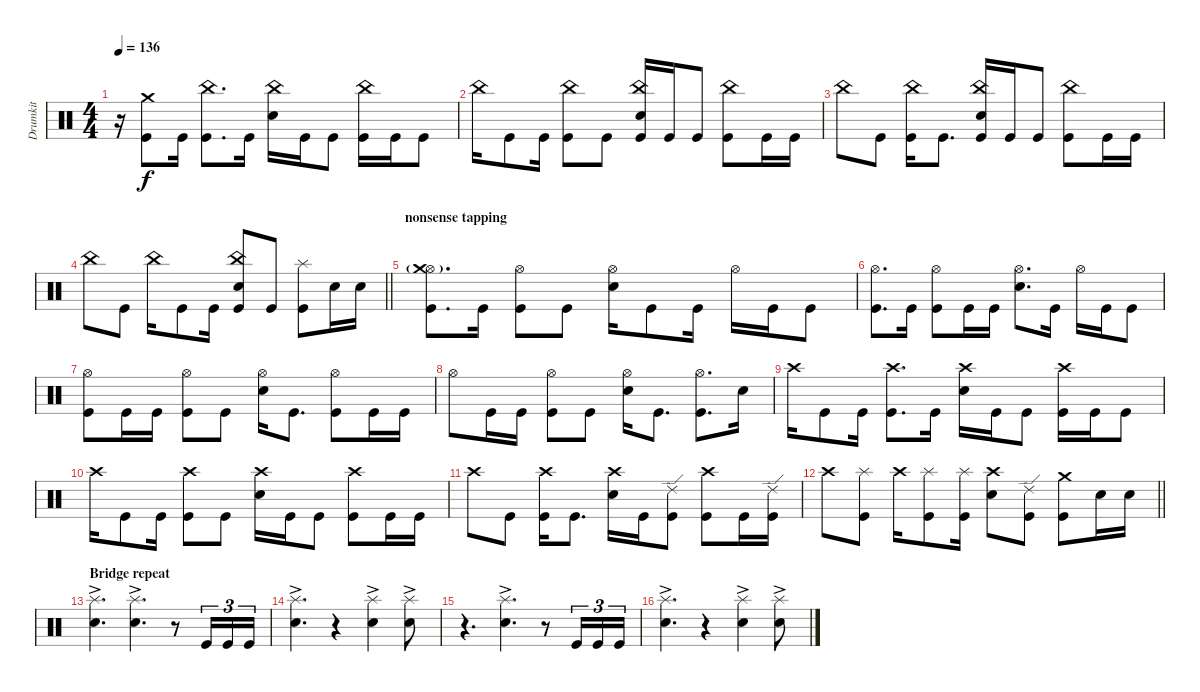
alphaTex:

\track ("Drumkit" "Drumkit") {instrument percussion}
\staff {score}
\articulation defaults
\ts (4 4)
\tempo 136
\clef neutral
\ks c
r.16{dy f} ("Kick (hit)" "Crash medium (hit)").8 "Kick (hit)".16 ("China (hit)" "Kick (hit)").8{d} "Kick (hit)".16 ("China (hit)" "Snare (hit) 2").16 "Kick (hit)".16 "Kick (hit)".8 ("China (hit)" "Kick (hit)").16 "Kick (hit)".16 "Kick (hit)".8 |
"China (hit)".16 "Kick (hit)".8 "Kick (hit)".16 ("China (hit)" "Kick (hit)").8 "Kick (hit)".8 ("China (hit)" "Snare (hit) 2" "Kick (hit)").16 "Kick (hit)".16 "Kick (hit)".8 ("China (hit)" "Kick (hit)").8 "Kick (hit)".16 "Kick (hit)".16 |
"China (hit)".8 "Kick (hit)".8 ("China (hit)" "Kick (hit)").16 "Kick (hit)".8{d} ("China (hit)" "Snare (hit) 2" "Kick (hit)").16 "Kick (hit)".16 "Kick (hit)".8 ("China (hit)" "Kick (hit)").8 "Kick (hit)".16 "Kick (hit)".16 |
\barLineRight lightlight "China (hit)".8 "Kick (hit)".8 "China (hit)".16 "Kick (hit)".8 "Kick (hit)".16
("China (hit)" "Snare (hit) 2" "Kick (hit)").8 "Kick (hit)".8 ("Splash (hit)" "Kick (hit)").8 "Snare (hit) 2".16 "Snare (hit) 2".16 |
\section ("" "nonsense tapping")
("Kick (hit)" "Hi-Hat (open)" "Crash medium (hit)"{g}).8{d} "Kick (hit)".16 ("Kick (hit)" "Hi-Hat (open)").8 "Kick (hit)".8 ("Snare (hit) 2" "Hi-Hat (open)").16 "Kick (hit)".8 "Kick (hit)".16 "Hi-Hat (open)".16 "Kick (hit)".16 "Kick (hit)".8 |
("Kick (hit)" "Hi-Hat (open)").8{d} "Kick (hit)".16 ("Kick (hit)" "Hi-Hat (open)").8 "Kick (hit)".16 "Kick (hit)".16 ("Snare (hit) 2" "Hi-Hat (open)").8{d} "Kick (hit)".16 "Hi-Hat (open)".16 "Kick (hit)".16 "Kick (hit)".8 |
("Kick (hit)" "Hi-Hat (open)").8 "Kick (hit)".16 "Kick (hit)".16 ("Kick (hit)" "Hi-Hat (open)").8 "Kick (hit)".8 ("Snare (hit) 2" "Hi-Hat (open)").16 "Kick (hit)".8{d} ("Kick (hit)" "Hi-Hat (open)").8 "Kick (hit)".16 "Kick (hit)".16 |
"Hi-Hat (open)".8 "Kick (hit)".16 "Kick (hit)".16 ("Kick (hit)" "Hi-Hat (open)").8 "Kick (hit)".8 ("Snare (hit) 2" "Hi-Hat (open)").16 "Kick (hit)".8{d} ("Kick (hit)" "Hi-Hat (open)").8{d} "Snare (hit) 2".16 |
"Crash high (hit)".16 "Kick (hit)".8 "Kick (hit)".16 ("Kick (hit)" "Crash high (hit)").8{d} "Kick (hit)".16 ("Crash high (hit)" "Snare (hit) 2").16 "Kick (hit)".16 "Kick (hit)".8 ("Crash high (hit)" "Kick (hit)").16 "Kick (hit)".16 "Kick (hit)".8 |
"Crash high (hit)".16 "Kick (hit)".8 "Kick (hit)".16 ("Crash high (hit)" "Kick (hit)").8 "Kick (hit)".8 ("Crash high (hit)" "Snare (hit) 2").16 "Kick (hit)".16 "Kick (hit)".8 ("Crash high (hit)" "Kick (hit)").8 "Kick (hit)".16 "Kick (hit)".16 |
"Crash high (hit)".8 "Kick (hit)".8 ("Crash high (hit)" "Kick (hit)").16 "Kick (hit)".8{d} ("Crash high (hit)" "Snare (hit) 2").16 "Kick (hit)".16 ("Kick (hit)" "Ride (edge) 2").8 ("Crash high (hit)" "Kick (hit)").8 "Kick (hit)".16 ("Kick (hit)" "Ride (edge) 2").16 |
\barLineRight lightlight "Crash high (hit)".8
("Kick (hit)" "Splash (hit)").8 "Crash high (hit)".16 ("Kick (hit)" "Splash (hit)").8 ("Kick (hit)" "Splash (hit)").16 ("Crash high (hit)" "Snare (hit) 2").8 ("Kick (hit)" "Ride (edge) 2").8 ("Kick (hit)" "Crash medium (hit)").8 "Snare (hit) 2".16 "Snare (hit) 2".16 |
\section ("" "Bridge repeat")
("Splash (hit)" "Snare (hit) 2"{ac}).4{d} ("Splash (hit)" "Snare (hit) 2"{ac}).4{d} r.8 "Kick (hit)".16{tu (3 2)} "Kick (hit)".16{tu (3 2)} "Kick (hit)".16{tu (3 2)} |
("Splash (hit)" "Snare (hit) 2"{ac}).4{d} r.4 ("Splash (hit)" "Snare (hit) 2"{ac}).4 ("Splash (hit)" "Snare (hit) 2"{ac}).8 |
r.4{d} ("Splash (hit)" "Snare (hit) 2"{ac}).4{d} r.8 "Kick (hit)".16{tu (3 2)} "Kick (hit)".16{tu (3 2)} "Kick (hit)".16{tu (3 2)} |
("Splash (hit)" "Snare (hit) 2"{ac}).4{d} r.4 ("Splash (hit)" "Snare (hit) 2"{ac}).4 ("Splash (hit)" "Snare (hit) 2"{ac}).8
